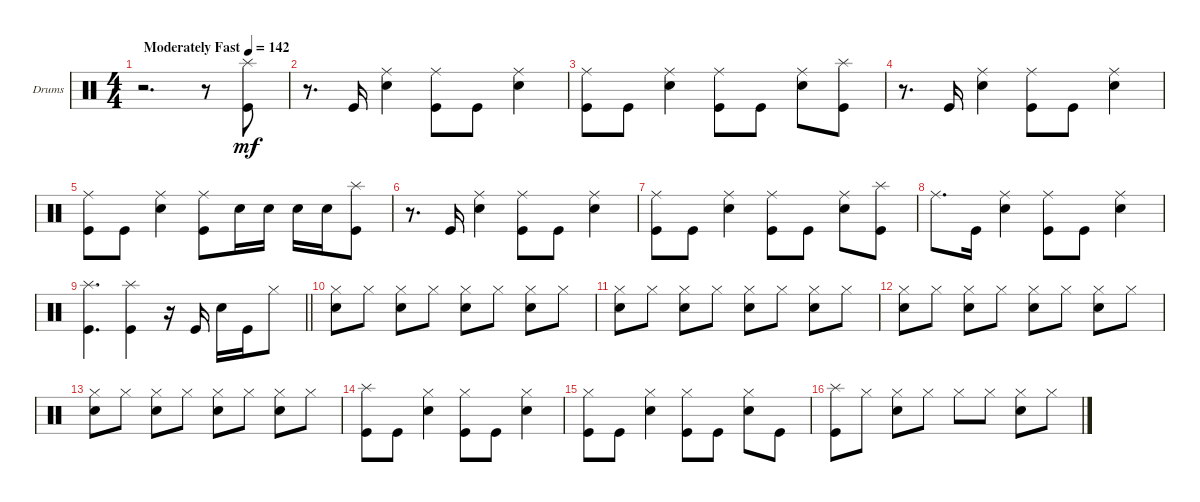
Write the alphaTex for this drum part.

\defaultSystemsLayout 4
\bracketExtendMode groupsimilarinstruments
\firstSystemTrackNameOrientation horizontal
\otherSystemsTrackNameOrientation horizontal
\track ("Drums" "Drums") {instrument percussion}
\staff {score}
\articulation defaults
\ts (4 4)
\tempo (142 "Moderately Fast")
\clef neutral
\ks c
r.2{d dy mf} r.8 ("Splash (hit)" "Kick (hit)").8 |
r.8{d} "Kick (hit)".16 ("Snare (hit) 2" "Ride (middle)").4 ("Kick (hit)" "Ride (middle)").8 "Kick (hit)".8 ("Snare (hit) 2" "Ride (middle)").4 |
("Kick (hit)" "Ride (middle)").8 "Kick (hit)".8 ("Snare (hit) 2" "Ride (middle)").4 ("Kick (hit)" "Ride (middle)").8 "Kick (hit)".8 ("Snare (hit) 2" "Ride (middle)").8 ("Kick (hit)" "Splash (hit)").8 |
r.8{d} "Kick (hit)".16 ("Snare (hit) 2" "Ride (middle)").4 ("Kick (hit)" "Ride (middle)").8 "Kick (hit)".8 ("Snare (hit) 2" "Ride (middle)").4 |
("Kick (hit)" "Ride (middle)").8 "Kick (hit)".8 ("Snare (hit) 2" "Ride (middle)").4 ("Kick (hit)" "Ride (middle)").8 "Snare (hit) 2".16 "Snare (hit) 2".16 "Snare (hit) 2".16 "Snare (hit) 2".16 ("Kick (hit)" "Splash (hit)").8 |
r.8{d} "Kick (hit)".16 ("Snare (hit) 2" "Ride (middle)").4 ("Kick (hit)" "Ride (middle)").8 "Kick (hit)".8 ("Snare (hit) 2" "Ride (middle)").4 |
("Kick (hit)" "Ride (middle)").8 "Kick (hit)".8 ("Snare (hit) 2" "Ride (middle)").4 ("Kick (hit)" "Ride (middle)").8 "Kick (hit)".8 ("Snare (hit) 2" "Ride (middle)").8 ("Kick (hit)" "Splash (hit)").8 |
"Ride (middle)".8{d} "Kick (hit)".16 ("Snare (hit) 2" "Ride (middle)").4 ("Kick (hit)" "Ride (middle)").8 "Kick (hit)".8 ("Snare (hit) 2" "Ride (middle)").4 |
\barLineRight lightlight
("Splash (hit)" "Kick (hit)").4{d} ("Splash (hit)" "Kick (hit)").4 r.16 "Kick (hit)".16 "Snare (hit) 2".16 "Kick (hit)".16 "Hi-Hat (closed)".8 |
("Hi-Hat (closed)" "Snare (hit) 2").8 "Hi-Hat (closed)".8 ("Hi-Hat (closed)" "Snare (hit) 2").8 "Hi-Hat (closed)".8 ("Hi-Hat (closed)" "Snare (hit) 2").8 "Hi-Hat (closed)".8 ("Hi-Hat (closed)" "Snare (hit) 2").8 "Hi-Hat (closed)".8 |
("Hi-Hat (closed)" "Snare (hit) 2").8 "Hi-Hat (closed)".8 ("Hi-Hat (closed)" "Snare (hit) 2").8 "Hi-Hat (closed)".8 ("Hi-Hat (closed)" "Snare (hit) 2").8 "Hi-Hat (closed)".8 ("Hi-Hat (closed)" "Snare (hit) 2").8 "Hi-Hat (closed)".8 |
("Hi-Hat (closed)" "Snare (hit) 2").8 "Hi-Hat (closed)".8 ("Hi-Hat (closed)" "Snare (hit) 2").8 "Hi-Hat (closed)".8 ("Hi-Hat (closed)" "Snare (hit) 2").8 "Hi-Hat (closed)".8 ("Hi-Hat (closed)" "Snare (hit) 2").8 "Hi-Hat (closed)".8 |
("Hi-Hat (closed)" "Snare (hit) 2").8 "Hi-Hat (closed)".8 ("Hi-Hat (closed)" "Snare (hit) 2").8 "Hi-Hat (closed)".8 ("Hi-Hat (closed)" "Snare (hit) 2").8 "Hi-Hat (closed)".8 ("Hi-Hat (closed)" "Snare (hit) 2").8 "Hi-Hat (closed)".8 |
("Splash (hit)" "Kick (hit)").8 "Kick (hit)".8 ("Snare (hit) 2" "Hi-Hat (closed)").4 ("Hi-Hat (closed)" "Kick (hit)").8 "Kick (hit)".8 ("Snare (hit) 2" "Hi-Hat (closed)").4 |
("Kick (hit)" "Hi-Hat (closed)").8 "Kick (hit)".8 ("Snare (hit) 2" "Hi-Hat (closed)").4 ("Hi-Hat (closed)" "Kick (hit)").8 "Kick (hit)".8 ("Snare (hit) 2" "Hi-Hat (closed)").8 "Kick (hit)".8 |
("Splash (hit)" "Kick (hit)").8 "Hi-Hat (closed)".8 ("Hi-Hat (closed)" "Snare (hit) 2").8 "Hi-Hat (closed)".8 "Hi-Hat (closed)".8 "Hi-Hat (closed)".8 ("Hi-Hat (closed)" "Snare (hit) 2").8 "Hi-Hat (closed)".8
